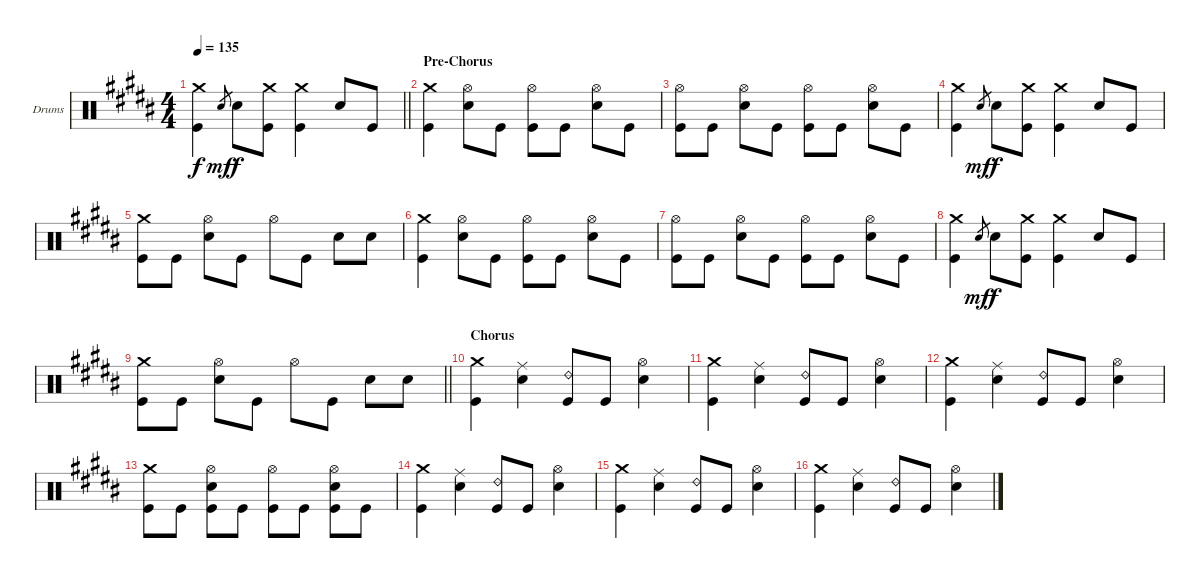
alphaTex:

\bracketExtendMode groupsimilarinstruments
\firstSystemTrackNameOrientation horizontal
\otherSystemsTrackNameOrientation horizontal
\track ("Drumkit" "Drums") {multiBarRest instrument percussion}
\staff {score}
\articulation defaults
\ts (4 4)
\tempo 135
\clef neutral
\barLineRight lightlight
\ks b
("Crash medium (hit)" "Kick (hit)").4{dy f} "Snare (hit) 2".8{gr dy mf} "Snare (hit) 2".8{dy f} ("Crash medium (hit)" "Kick (hit)").8 ("Crash medium (hit)" "Kick (hit)").4 "Snare (hit) 2".8 "Kick (hit)".8 |
\section ("" "Pre-Chorus")
("Crash medium (hit)" "Kick (hit)").4 ("Snare (hit) 2" "Hi-Hat (open)").8 "Kick (hit)".8 ("Hi-Hat (open)" "Kick (hit)").8 "Kick (hit)".8 ("Snare (hit) 2" "Hi-Hat (open)").8 "Kick (hit)".8 |
("Hi-Hat (open)" "Kick (hit)").8 "Kick (hit)".8 ("Snare (hit) 2" "Hi-Hat (open)").8 "Kick (hit)".8 ("Hi-Hat (open)" "Kick (hit)").8 "Kick (hit)".8 ("Snare (hit) 2" "Hi-Hat (open)").8 "Kick (hit)".8 |
("Crash medium (hit)" "Kick (hit)").4 "Snare (hit) 2".8{gr dy mf} "Snare (hit) 2".8{dy f} ("Crash medium (hit)" "Kick (hit)").8 ("Crash medium (hit)" "Kick (hit)").4 "Snare (hit) 2".8 "Kick (hit)".8 |
("Crash medium (hit)" "Kick (hit)").8 "Kick (hit)".8 ("Hi-Hat (open)" "Snare (hit) 2").8 "Kick (hit)".8 "Hi-Hat (open)".8 "Kick (hit)".8 "Snare (hit) 2".8 "Snare (hit) 2".8 |
("Crash medium (hit)" "Kick (hit)").4 ("Snare (hit) 2" "Hi-Hat (open)").8 "Kick (hit)".8 ("Hi-Hat (open)" "Kick (hit)").8 "Kick (hit)".8 ("Snare (hit) 2" "Hi-Hat (open)").8 "Kick (hit)".8 |
("Hi-Hat (open)" "Kick (hit)").8 "Kick (hit)".8 ("Snare (hit) 2" "Hi-Hat (open)").8 "Kick (hit)".8 ("Hi-Hat (open)" "Kick (hit)").8 "Kick (hit)".8 ("Snare (hit) 2" "Hi-Hat (open)").8 "Kick (hit)".8 |
("Crash medium (hit)" "Kick (hit)").4 "Snare (hit) 2".8{gr dy mf} "Snare (hit) 2".8{dy f} ("Crash medium (hit)" "Kick (hit)").8 ("Crash medium (hit)" "Kick (hit)").4 "Snare (hit) 2".8 "Kick (hit)".8 |
\barLineRight lightlight
("Crash medium (hit)" "Kick (hit)").8 "Kick (hit)".8 ("Hi-Hat (open)" "Snare (hit) 2").8 "Kick (hit)".8 "Hi-Hat (open)".8 "Kick (hit)".8 "Snare (hit) 2".8 "Snare (hit) 2".8 |
\section ("" "Chorus")
("Crash medium (hit)" "Kick (hit)").4 ("Ride (middle)" "Snare (hit) 2").4 ("Ride (bell) 2" "Kick (hit)").8 "Kick (hit)".8 ("Hi-Hat (open)" "Snare (hit) 2").4 |
("Crash medium (hit)" "Kick (hit)").4 ("Ride (middle)" "Snare (hit) 2").4 ("Ride (bell) 2" "Kick (hit)").8 "Kick (hit)".8 ("Hi-Hat (open)" "Snare (hit) 2").4 |
("Crash medium (hit)" "Kick (hit)").4 ("Ride (middle)" "Snare (hit) 2").4 ("Ride (bell) 2" "Kick (hit)").8 "Kick (hit)".8 ("Hi-Hat (open)" "Snare (hit) 2").4 |
("Crash medium (hit)" "Kick (hit)").8 "Kick (hit)".8 ("Hi-Hat (open)" "Snare (hit) 2" "Kick (hit)").8 "Kick (hit)".8 ("Hi-Hat (open)" "Kick (hit)").8 "Kick (hit)".8 ("Hi-Hat (open)" "Snare (hit) 2" "Kick (hit)").8 "Kick (hit)".8 |
("Crash medium (hit)" "Kick (hit)").4 ("Ride (middle)" "Snare (hit) 2").4 ("Ride (bell) 2" "Kick (hit)").8 "Kick (hit)".8 ("Hi-Hat (open)" "Snare (hit) 2").4 |
("Crash medium (hit)" "Kick (hit)").4 ("Ride (middle)" "Snare (hit) 2").4 ("Ride (bell) 2" "Kick (hit)").8 "Kick (hit)".8 ("Hi-Hat (open)" "Snare (hit) 2").4 |
("Crash medium (hit)" "Kick (hit)").4 ("Ride (middle)" "Snare (hit) 2").4 ("Ride (bell) 2" "Kick (hit)").8 "Kick (hit)".8 ("Hi-Hat (open)" "Snare (hit) 2").4
